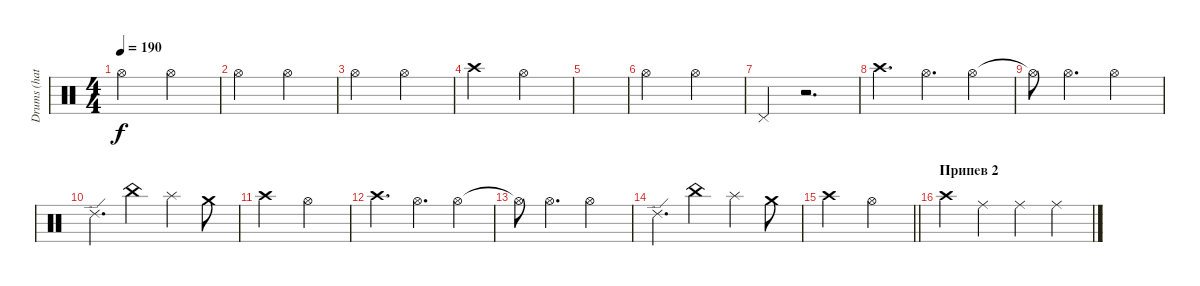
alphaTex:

\track ("Drums (hats)" "Drums (hat") {instrument percussion}
\staff {score}
\articulation defaults
\ts (4 4)
\tempo 190
\clef neutral
\ks c "Hi-Hat (open)".2{dy f} "Hi-Hat (open)".2
|
"Hi-Hat (open)".2 "Hi-Hat (open)".2 |
"Hi-Hat (open)".2 "Hi-Hat (open)".2 |
"Crash high (hit)".2 "Hi-Hat (open)".2 |
|
"Hi-Hat (open)".2 "Hi-Hat (open)".2 |
"Pedal Hi-Hat (hit)".4 r.2{d} |
"Crash high (hit)".4{d} "Hi-Hat (open)".4{d} "Hi-Hat (open)".4 |
"Hi-Hat (open)"{t}.8 "Hi-Hat (open)".4{d} "Hi-Hat (open)".2 |
"Ride (edge) 2".4{d} "China (hit)".4 "Splash (hit)".4 "Crash medium (hit)".8 |
"Crash high (hit)".2 "Hi-Hat (open)".2 |
"Crash high (hit)".4{d} "Hi-Hat (open)".4{d} "Hi-Hat (open)".4 |
"Hi-Hat (open)"{t}.8 "Hi-Hat (open)".4{d} "Hi-Hat (open)".2 |
"Ride (edge) 2".4{d} "China (hit)".4 "Splash (hit)".4 "Crash medium (hit)".8 |
\barLineRight lightlight "Crash high (hit)".2 "Hi-Hat (open)".2
|
\section ("" "Припев 2")
"Crash high (hit)".4 "Ride (middle)".4 "Ride (middle)".4 "Ride (middle)".4
